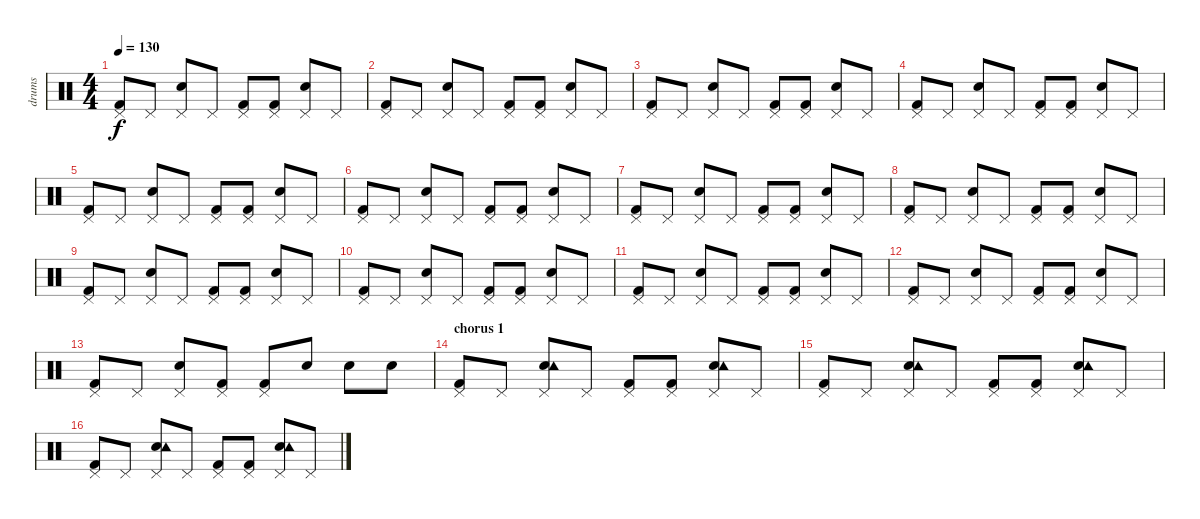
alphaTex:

\track ("drums" "drums") {instrument percussion}
\staff {score}
\articulation defaults
\ts (4 4)
\tempo 130
\clef neutral
\ks c
("Kick (hit) 2" "Pedal Hi-Hat (hit)").8{dy f} "Pedal Hi-Hat (hit)".8 ("Snare (hit) 2" "Pedal Hi-Hat (hit)").8 "Pedal Hi-Hat (hit)".8 ("Kick (hit) 2" "Pedal Hi-Hat (hit)").8 ("Kick (hit) 2" "Pedal Hi-Hat (hit)").8 ("Snare (hit) 2" "Pedal Hi-Hat (hit)").8 "Pedal Hi-Hat (hit)".8 |
("Kick (hit) 2" "Pedal Hi-Hat (hit)").8 "Pedal Hi-Hat (hit)".8 ("Snare (hit) 2" "Pedal Hi-Hat (hit)").8 "Pedal Hi-Hat (hit)".8 ("Kick (hit) 2" "Pedal Hi-Hat (hit)").8 ("Kick (hit) 2" "Pedal Hi-Hat (hit)").8 ("Snare (hit) 2" "Pedal Hi-Hat (hit)").8 "Pedal Hi-Hat (hit)".8 |
("Kick (hit) 2" "Pedal Hi-Hat (hit)").8 "Pedal Hi-Hat (hit)".8 ("Snare (hit) 2" "Pedal Hi-Hat (hit)").8 "Pedal Hi-Hat (hit)".8 ("Kick (hit) 2" "Pedal Hi-Hat (hit)").8 ("Kick (hit) 2" "Pedal Hi-Hat (hit)").8 ("Snare (hit) 2" "Pedal Hi-Hat (hit)").8 "Pedal Hi-Hat (hit)".8 |
("Kick (hit) 2" "Pedal Hi-Hat (hit)").8 "Pedal Hi-Hat (hit)".8 ("Snare (hit) 2" "Pedal Hi-Hat (hit)").8 "Pedal Hi-Hat (hit)".8 ("Kick (hit) 2" "Pedal Hi-Hat (hit)").8 ("Kick (hit) 2" "Pedal Hi-Hat (hit)").8 ("Snare (hit) 2" "Pedal Hi-Hat (hit)").8 "Pedal Hi-Hat (hit)".8 |
("Kick (hit) 2" "Pedal Hi-Hat (hit)").8 "Pedal Hi-Hat (hit)".8 ("Snare (hit) 2" "Pedal Hi-Hat (hit)").8 "Pedal Hi-Hat (hit)".8 ("Kick (hit) 2" "Pedal Hi-Hat (hit)").8 ("Kick (hit) 2" "Pedal Hi-Hat (hit)").8 ("Snare (hit) 2" "Pedal Hi-Hat (hit)").8 "Pedal Hi-Hat (hit)".8 |
("Kick (hit) 2" "Pedal Hi-Hat (hit)").8 "Pedal Hi-Hat (hit)".8 ("Snare (hit) 2" "Pedal Hi-Hat (hit)").8 "Pedal Hi-Hat (hit)".8 ("Kick (hit) 2" "Pedal Hi-Hat (hit)").8 ("Kick (hit) 2" "Pedal Hi-Hat (hit)").8 ("Snare (hit) 2" "Pedal Hi-Hat (hit)").8 "Pedal Hi-Hat (hit)".8 |
("Kick (hit) 2" "Pedal Hi-Hat (hit)").8 "Pedal Hi-Hat (hit)".8 ("Snare (hit) 2" "Pedal Hi-Hat (hit)").8 "Pedal Hi-Hat (hit)".8 ("Kick (hit) 2" "Pedal Hi-Hat (hit)").8 ("Kick (hit) 2" "Pedal Hi-Hat (hit)").8 ("Snare (hit) 2" "Pedal Hi-Hat (hit)").8 "Pedal Hi-Hat (hit)".8 |
("Kick (hit) 2" "Pedal Hi-Hat (hit)").8 "Pedal Hi-Hat (hit)".8 ("Snare (hit) 2" "Pedal Hi-Hat (hit)").8 "Pedal Hi-Hat (hit)".8 ("Kick (hit) 2" "Pedal Hi-Hat (hit)").8 ("Kick (hit) 2" "Pedal Hi-Hat (hit)").8 ("Snare (hit) 2" "Pedal Hi-Hat (hit)").8 "Pedal Hi-Hat (hit)".8 |
("Kick (hit) 2" "Pedal Hi-Hat (hit)").8 "Pedal Hi-Hat (hit)".8 ("Snare (hit) 2" "Pedal Hi-Hat (hit)").8 "Pedal Hi-Hat (hit)".8 ("Kick (hit) 2" "Pedal Hi-Hat (hit)").8 ("Kick (hit) 2" "Pedal Hi-Hat (hit)").8 ("Snare (hit) 2" "Pedal Hi-Hat (hit)").8 "Pedal Hi-Hat (hit)".8 |
("Kick (hit) 2" "Pedal Hi-Hat (hit)").8 "Pedal Hi-Hat (hit)".8 ("Snare (hit) 2" "Pedal Hi-Hat (hit)").8 "Pedal Hi-Hat (hit)".8 ("Kick (hit) 2" "Pedal Hi-Hat (hit)").8 ("Kick (hit) 2" "Pedal Hi-Hat (hit)").8 ("Snare (hit) 2" "Pedal Hi-Hat (hit)").8 "Pedal Hi-Hat (hit)".8 |
("Kick (hit) 2" "Pedal Hi-Hat (hit)").8 "Pedal Hi-Hat (hit)".8 ("Snare (hit) 2" "Pedal Hi-Hat (hit)").8 "Pedal Hi-Hat (hit)".8 ("Kick (hit) 2" "Pedal Hi-Hat (hit)").8 ("Kick (hit) 2" "Pedal Hi-Hat (hit)").8 ("Snare (hit) 2" "Pedal Hi-Hat (hit)").8 "Pedal Hi-Hat (hit)".8 |
("Kick (hit) 2" "Pedal Hi-Hat (hit)").8 "Pedal Hi-Hat (hit)".8 ("Snare (hit) 2" "Pedal Hi-Hat (hit)").8 "Pedal Hi-Hat (hit)".8 ("Kick (hit) 2" "Pedal Hi-Hat (hit)").8 ("Kick (hit) 2" "Pedal Hi-Hat (hit)").8 ("Snare (hit) 2" "Pedal Hi-Hat (hit)").8 "Pedal Hi-Hat (hit)".8 |
("Kick (hit) 2" "Pedal Hi-Hat (hit)").8 "Pedal Hi-Hat (hit)".8 ("Snare (hit) 2" "Pedal Hi-Hat (hit)").8 ("Kick (hit) 2" "Pedal Hi-Hat (hit)").8 ("Kick (hit) 2" "Pedal Hi-Hat (hit)").8 "Snare (hit) 2"{tr (38 16)}.8 "Snare (hit) 2"{tr (38 16)}.8 "Snare (hit) 2"{tr (38 16)}.8 |
\section ("" "chorus 1")
("Kick (hit) 2" "Pedal Hi-Hat (hit)").8 "Pedal Hi-Hat (hit)".8 ("Snare (hit) 2" "Tambourine (hit)" "Pedal Hi-Hat (hit)").8 "Pedal Hi-Hat (hit)".8 ("Kick (hit) 2" "Pedal Hi-Hat (hit)").8 ("Kick (hit) 2" "Pedal Hi-Hat (hit)").8 ("Snare (hit) 2" "Tambourine (hit)" "Pedal Hi-Hat (hit)").8 "Pedal Hi-Hat (hit)".8 |
("Kick (hit) 2" "Pedal Hi-Hat (hit)").8 "Pedal Hi-Hat (hit)".8 ("Snare (hit) 2" "Tambourine (hit)" "Pedal Hi-Hat (hit)").8 "Pedal Hi-Hat (hit)".8 ("Kick (hit) 2" "Pedal Hi-Hat (hit)").8 ("Kick (hit) 2" "Pedal Hi-Hat (hit)").8 ("Snare (hit) 2" "Tambourine (hit)" "Pedal Hi-Hat (hit)").8 "Pedal Hi-Hat (hit)".8 |
("Kick (hit) 2" "Pedal Hi-Hat (hit)").8 "Pedal Hi-Hat (hit)".8 ("Snare (hit) 2" "Tambourine (hit)" "Pedal Hi-Hat (hit)").8 "Pedal Hi-Hat (hit)".8 ("Kick (hit) 2" "Pedal Hi-Hat (hit)").8 ("Kick (hit) 2" "Pedal Hi-Hat (hit)").8 ("Snare (hit) 2" "Tambourine (hit)" "Pedal Hi-Hat (hit)").8 "Pedal Hi-Hat (hit)".8
